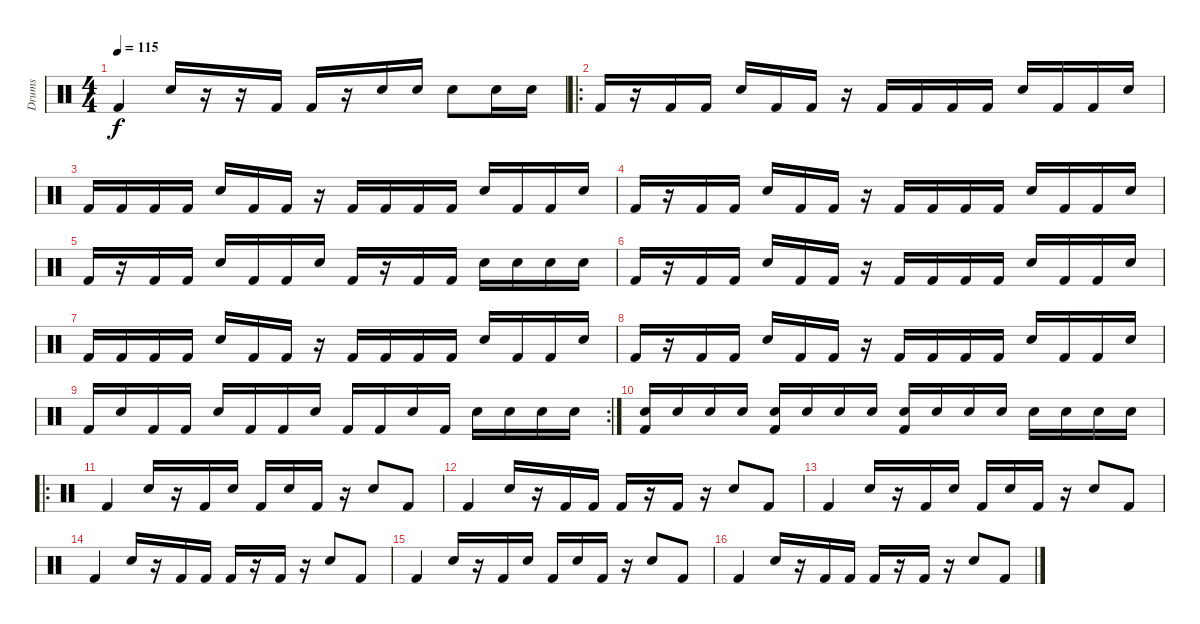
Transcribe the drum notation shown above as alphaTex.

\track ("Drums" "Drums") {instrument percussion}
\staff {score}
\articulation defaults
\ts (4 4)
\tempo 115
\clef neutral
\ks c "Kick (hit) 2".4{dy f} "Snare (hit) 2".16
r.16 r.16 "Kick (hit) 2".16 "Kick (hit) 2".16 r.16 "Snare (hit) 2".16 "Snare (hit) 2".16 "Snare (hit) 2".8 "Snare (hit) 2".16 "Snare (hit) 2".16 |
\ro "Kick (hit) 2".16
r.16 "Kick (hit) 2".16 "Kick (hit) 2".16 "Snare (hit) 2".16 "Kick (hit) 2".16 "Kick (hit) 2".16 r.16 "Kick (hit) 2".16 "Kick (hit) 2".16 "Kick (hit) 2".16 "Kick (hit) 2".16 "Snare (hit) 2".16 "Kick (hit) 2".16 "Kick (hit) 2".16 "Snare (hit) 2".16 |
"Kick (hit) 2".16 "Kick (hit) 2".16 "Kick (hit) 2".16 "Kick (hit) 2".16 "Snare (hit) 2".16 "Kick (hit) 2".16 "Kick (hit) 2".16 r.16 "Kick (hit) 2".16 "Kick (hit) 2".16 "Kick (hit) 2".16 "Kick (hit) 2".16 "Snare (hit) 2".16 "Kick (hit) 2".16 "Kick (hit) 2".16 "Snare (hit) 2".16 |
"Kick (hit) 2".16 r.16 "Kick (hit) 2".16 "Kick (hit) 2".16 "Snare (hit) 2".16 "Kick (hit) 2".16 "Kick (hit) 2".16 r.16 "Kick (hit) 2".16 "Kick (hit) 2".16 "Kick (hit) 2".16 "Kick (hit) 2".16 "Snare (hit) 2".16 "Kick (hit) 2".16 "Kick (hit) 2".16 "Snare (hit) 2".16 |
"Kick (hit) 2".16 r.16 "Kick (hit) 2".16 "Kick (hit) 2".16 "Snare (hit) 2".16 "Kick (hit) 2".16 "Kick (hit) 2".16 "Snare (hit) 2".16 "Kick (hit) 2".16 r.16 "Kick (hit) 2".16 "Kick (hit) 2".16 "Snare (hit) 2".16 "Snare (hit) 2".16 "Snare (hit) 2".16 "Snare (hit) 2".16 |
"Kick (hit) 2".16 r.16 "Kick (hit) 2".16 "Kick (hit) 2".16 "Snare (hit) 2".16 "Kick (hit) 2".16 "Kick (hit) 2".16 r.16 "Kick (hit) 2".16 "Kick (hit) 2".16 "Kick (hit) 2".16 "Kick (hit) 2".16 "Snare (hit) 2".16 "Kick (hit) 2".16 "Kick (hit) 2".16 "Snare (hit) 2".16 |
"Kick (hit) 2".16 "Kick (hit) 2".16 "Kick (hit) 2".16 "Kick (hit) 2".16 "Snare (hit) 2".16 "Kick (hit) 2".16 "Kick (hit) 2".16 r.16 "Kick (hit) 2".16 "Kick (hit) 2".16 "Kick (hit) 2".16 "Kick (hit) 2".16 "Snare (hit) 2".16 "Kick (hit) 2".16 "Kick (hit) 2".16 "Snare (hit) 2".16 |
"Kick (hit) 2".16 r.16 "Kick (hit) 2".16 "Kick (hit) 2".16 "Snare (hit) 2".16 "Kick (hit) 2".16 "Kick (hit) 2".16 r.16 "Kick (hit) 2".16 "Kick (hit) 2".16 "Kick (hit) 2".16 "Kick (hit) 2".16 "Snare (hit) 2".16 "Kick (hit) 2".16 "Kick (hit) 2".16 "Snare (hit) 2".16 |
\rc 2 "Kick (hit) 2".16 "Snare (hit) 2".16 "Kick (hit) 2".16 "Kick (hit) 2".16 "Snare (hit) 2".16 "Kick (hit) 2".16 "Kick (hit) 2".16 "Snare (hit) 2".16 "Kick (hit) 2".16 "Kick (hit) 2".16 "Snare (hit) 2".16 "Kick (hit) 2".16 "Snare (hit) 2".16 "Snare (hit) 2".16 "Snare (hit) 2".16 "Snare (hit) 2".16
|
("Snare (hit) 2" "Kick (hit) 2").16 "Snare (hit) 2".16 "Snare (hit) 2".16 "Snare (hit) 2".16 ("Snare (hit) 2" "Kick (hit) 2").16 "Snare (hit) 2".16 "Snare (hit) 2".16 "Snare (hit) 2".16 ("Snare (hit) 2" "Kick (hit) 2").16 "Snare (hit) 2".16 "Snare (hit) 2".16 "Snare (hit) 2".16 "Snare (hit) 2".16 "Snare (hit) 2".16 "Snare (hit) 2".16 "Snare (hit) 2".16 |
\ro "Kick (hit) 2".4 "Snare (hit) 2".16
r.16 "Kick (hit) 2".16 "Snare (hit) 2".16 "Kick (hit) 2".16 "Snare (hit) 2".16 "Kick (hit) 2".16 r.16 "Snare (hit) 2".8 "Kick (hit) 2".8 |
"Kick (hit) 2".4 "Snare (hit) 2".16 r.16 "Kick (hit) 2".16 "Kick (hit) 2".16 "Kick (hit) 2".16 r.16 "Kick (hit) 2".16 r.16 "Snare (hit) 2".8 "Kick (hit) 2".8 |
"Kick (hit) 2".4 "Snare (hit) 2".16 r.16 "Kick (hit) 2".16 "Snare (hit) 2".16 "Kick (hit) 2".16 "Snare (hit) 2".16 "Kick (hit) 2".16 r.16 "Snare (hit) 2".8 "Kick (hit) 2".8 |
"Kick (hit) 2".4 "Snare (hit) 2".16 r.16 "Kick (hit) 2".16 "Kick (hit) 2".16 "Kick (hit) 2".16 r.16 "Kick (hit) 2".16 r.16 "Snare (hit) 2".8 "Kick (hit) 2".8 |
"Kick (hit) 2".4 "Snare (hit) 2".16 r.16 "Kick (hit) 2".16 "Snare (hit) 2".16 "Kick (hit) 2".16 "Snare (hit) 2".16 "Kick (hit) 2".16 r.16 "Snare (hit) 2".8 "Kick (hit) 2".8 |
"Kick (hit) 2".4 "Snare (hit) 2".16 r.16 "Kick (hit) 2".16 "Kick (hit) 2".16 "Kick (hit) 2".16 r.16 "Kick (hit) 2".16 r.16 "Snare (hit) 2".8 "Kick (hit) 2".8
